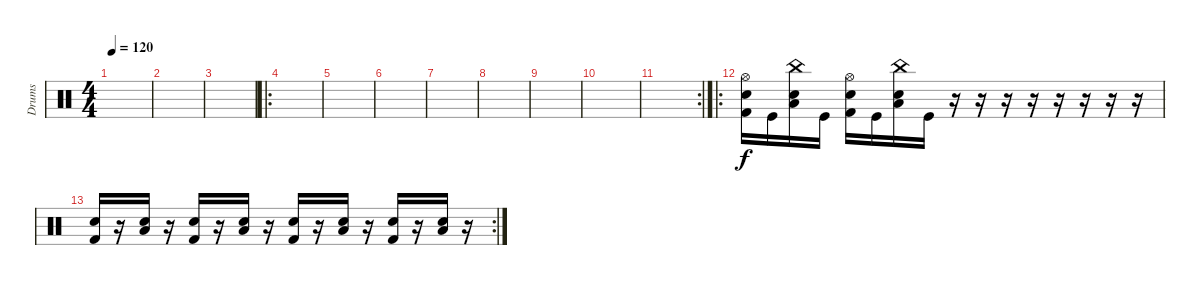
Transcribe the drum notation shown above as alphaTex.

\track ("Drums" "Drums") {instrument percussion}
\staff {score}
\articulation defaults
\ts (4 4)
\tempo 120
\clef neutral
\ks c
|
|
|
\ro
|
|
|
|
|
|
|
\rc 2
|
\ro
("Hi-Hat (open)" "Kick (hit) 2" "Snare (hit) 2").16 "Kick (hit)".16 ("China (hit)" "Low Floor Tom (hit)" "Snare (hit) 2").16 "Kick (hit)".16 ("Hi-Hat (open)" "Kick (hit) 2" "Snare (hit) 2").16 "Kick (hit)".16 ("China (hit)" "Low Floor Tom (hit)" "Snare (hit) 2").16 "Kick (hit)".16 r.16 r.16 r.16 r.16 r.16 r.16 r.16 r.16 |
\rc 2
("Kick (hit) 2" "Snare (hit) 2").16 r.16 ("Low Floor Tom (hit)" "Snare (hit) 2").16 r.16 ("Kick (hit) 2" "Snare (hit) 2").16 r.16 ("Low Floor Tom (hit)" "Snare (hit) 2").16 r.16 ("Kick (hit) 2" "Snare (hit) 2").16 r.16 ("Low Floor Tom (hit)" "Snare (hit) 2").16 r.16 ("Kick (hit) 2" "Snare (hit) 2").16 r.16 ("Low Floor Tom (hit)" "Snare (hit) 2").16 r.16
